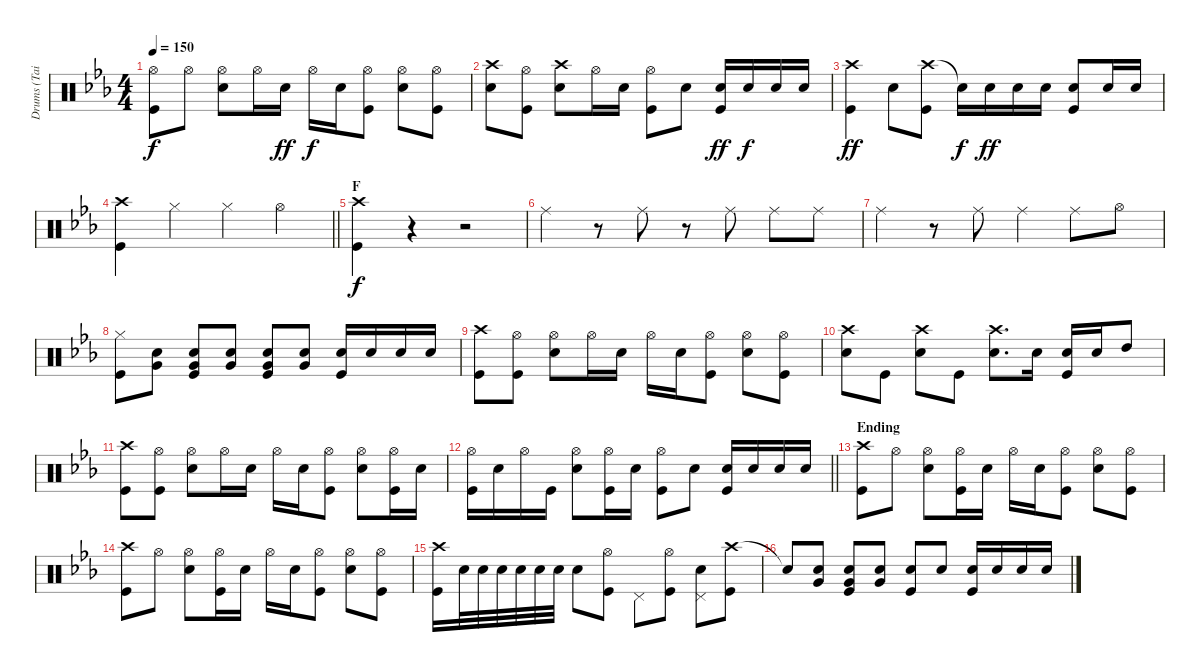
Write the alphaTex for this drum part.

\track ("Drums (Tainaka Ritsu)" "Drums (Tai") {instrument percussion}
\staff {score}
\articulation defaults
\ts (4 4)
\tempo 150
\clef neutral
\ks eb
("Hi-Hat (open)" "Kick (hit)").8{dy f} "Hi-Hat (open)".8 ("Hi-Hat (open)" "Snare (hit) 2").8 "Hi-Hat (open)".16 "Snare (hit) 2".16{dy ff} "Hi-Hat (open)".16{dy f} "Snare (hit) 2".16 ("Hi-Hat (open)" "Kick (hit)").8 ("Hi-Hat (open)" "Snare (hit) 2").8 ("Hi-Hat (open)" "Kick (hit)").8 |
("Crash high (hit)" "Snare (hit) 2").8 ("Hi-Hat (open)" "Kick (hit)").8 ("Crash high (hit)" "Snare (hit) 2").8 "Hi-Hat (open)".16 "Snare (hit) 2".16 ("Hi-Hat (open)" "Kick (hit)").8 "Snare (hit) 2".8 ("Snare (hit) 2" "Kick (hit)").16{dy ff} "Snare (hit) 2".16{dy f} "Snare (hit) 2".16 "Snare (hit) 2".16 |
("Crash high (hit)" "Kick (hit)").4{dy ff} "Snare (hit) 2".8 ("Crash high (hit)" "Kick (hit)").8 "Snare (hit)"{t}.16{dy f} "Snare (hit) 2".16{dy ff} "Snare (hit) 2".16 "Snare (hit) 2".16 ("Snare (hit) 2" "Kick (hit)").8 "Snare (hit) 2".16 "Snare (hit) 2".16 |
\barLineRight lightlight
("Crash high (hit)" "Kick (hit)").4 "Hi-Hat (closed)".4 "Hi-Hat (closed)".4 "Hi-Hat (open)".4 |
\section ("" "F")
("Crash high (hit)" "Kick (hit)").4{dy f} r.4 r.2 |
"Ride (middle)".4 r.8 "Ride (middle)".8 r.8 "Ride (middle)".8 "Ride (middle)".8 "Ride (middle)".8 |
"Ride (middle)".4 r.8 "Ride (middle)".8 "Ride (middle)".4 "Ride (middle)".8 "Hi-Hat (open)".8 |
("Hi-Hat (closed)" "Kick (hit)").8 ("Snare (hit) 2" "Very Low Tom (hit)").8 ("Snare (hit) 2" "Very Low Tom (hit)" "Kick (hit)").8 ("Snare (hit) 2" "Very Low Tom (hit)").8 ("Snare (hit) 2" "Very Low Tom (hit)" "Kick (hit)").8 ("Snare (hit) 2" "Very Low Tom (hit)").8 ("Snare (hit) 2" "Kick (hit)").16 "Snare (hit) 2".16 "Snare (hit) 2".16 "Snare (hit) 2".16 |
("Crash high (hit)" "Kick (hit)").8 ("Hi-Hat (open)" "Kick (hit)").8 ("Hi-Hat (open)" "Snare (hit) 2").8 "Hi-Hat (open)".16 "Snare (hit) 2".16 "Hi-Hat (open)".16 "Snare (hit) 2".16 ("Hi-Hat (open)" "Kick (hit)").8 ("Hi-Hat (open)" "Snare (hit) 2").8 ("Hi-Hat (open)" "Kick (hit)").8 |
("Crash high (hit)" "Snare (hit) 2").8 "Kick (hit)".8 ("Crash high (hit)" "Snare (hit) 2").8 "Kick (hit)".8 ("Crash high (hit)" "Snare (hit) 2").8{d} "Snare (hit) 2".16 ("Snare (hit) 2" "Kick (hit)").16 "Snare (hit) 2".16 "High Tom (hit)".8 |
("Crash high (hit)" "Kick (hit)").8 ("Hi-Hat (open)" "Kick (hit)").8 ("Hi-Hat (open)" "Snare (hit) 2").8 "Hi-Hat (open)".16 "Snare (hit) 2".16 "Hi-Hat (open)".16 "Snare (hit) 2".16 ("Hi-Hat (open)" "Kick (hit)").8 ("Hi-Hat (open)" "Snare (hit) 2").8 ("Hi-Hat (open)" "Kick (hit)").16 "Snare (hit) 2".16 |
\barLineRight lightlight
("Hi-Hat (open)" "Kick (hit)").16 "Snare (hit) 2".16 "Hi-Hat (open)".16 "Kick (hit)".16 ("Hi-Hat (open)" "Snare (hit) 2").8 ("Hi-Hat (open)" "Kick (hit)").16 "Snare (hit) 2".16 ("Hi-Hat (open)" "Kick (hit)").8 "Snare (hit) 2".8 ("Snare (hit) 2" "Kick (hit)").16 "Snare (hit) 2".16 "Snare (hit) 2".16 "Snare (hit) 2".16 |
\section ("" "Ending")
("Crash high (hit)" "Kick (hit)").8 "Hi-Hat (open)".8 ("Hi-Hat (open)" "Snare (hit) 2").8 ("Hi-Hat (open)" "Kick (hit)").16 "Snare (hit) 2".16 "Hi-Hat (open)".16 "Snare (hit) 2".16 ("Hi-Hat (open)" "Kick (hit)").8 ("Hi-Hat (open)" "Snare (hit) 2").8 ("Hi-Hat (open)" "Kick (hit)").8 |
("Crash high (hit)" "Kick (hit)").8 "Hi-Hat (open)".8 ("Hi-Hat (open)" "Snare (hit) 2").8 ("Hi-Hat (open)" "Kick (hit)").16 "Snare (hit) 2".16 "Hi-Hat (open)".16 "Snare (hit) 2".16 ("Hi-Hat (open)" "Kick (hit)").8 ("Hi-Hat (open)" "Snare (hit) 2").8 ("Hi-Hat (open)" "Kick (hit)").8 |
("Crash high (hit)" "Kick (hit)").16 "Snare (hit) 2".32 "Snare (hit) 2".32 "Snare (hit) 2".32 "Snare (hit) 2".32 "Snare (hit) 2".32 "Snare (hit) 2".32 "Snare (hit) 2".8 ("Hi-Hat (open)" "Kick (hit)").8 "Pedal Hi-Hat (hit)".8 ("Hi-Hat (open)" "Kick (hit)").8 ("Pedal Hi-Hat (hit)" "Snare (hit) 2").8 ("Crash high (hit)" "Kick (hit)").8 |
"Snare (hit)"{t}.8 ("Snare (hit) 2" "Very Low Tom (hit)").8 ("Snare (hit) 2" "Very Low Tom (hit)" "Kick (hit)").8 ("Snare (hit) 2" "Very Low Tom (hit)").8 ("Snare (hit) 2" "Kick (hit)").8 "Snare (hit) 2".8 ("Snare (hit) 2" "Kick (hit)").16 "Snare (hit) 2".16 "Snare (hit) 2".16 "Snare (hit) 2".16
